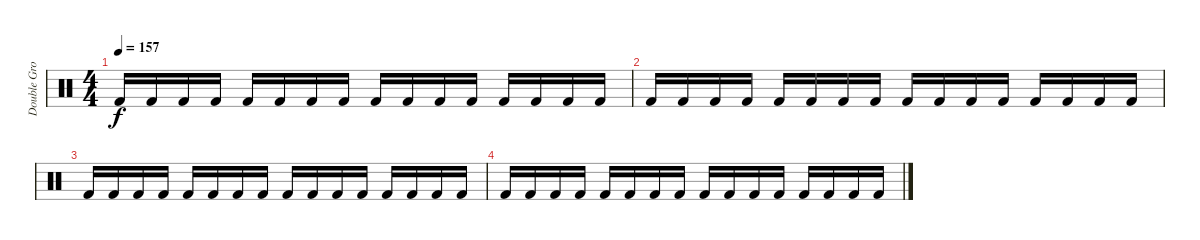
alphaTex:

\track ("Double Grosse Caisse" "Double Gro") {instrument percussion}
\staff {score}
\articulation defaults
\ts (4 4)
\tempo 157
\clef neutral
\ks c "Kick (hit) 2".16{dy f} "Kick (hit) 2".16 "Kick (hit) 2".16 "Kick (hit) 2".16 "Kick (hit) 2".16 "Kick (hit) 2".16 "Kick (hit) 2".16 "Kick (hit) 2".16 "Kick (hit) 2".16 "Kick (hit) 2".16 "Kick (hit) 2".16 "Kick (hit) 2".16 "Kick (hit) 2".16 "Kick (hit) 2".16 "Kick (hit) 2".16 "Kick (hit) 2".16
|
"Kick (hit) 2".16 "Kick (hit) 2".16 "Kick (hit) 2".16 "Kick (hit) 2".16 "Kick (hit) 2".16 "Kick (hit) 2".16 "Kick (hit) 2".16 "Kick (hit) 2".16 "Kick (hit) 2".16 "Kick (hit) 2".16 "Kick (hit) 2".16 "Kick (hit) 2".16 "Kick (hit) 2".16 "Kick (hit) 2".16 "Kick (hit) 2".16 "Kick (hit) 2".16 |
"Kick (hit) 2".16 "Kick (hit) 2".16 "Kick (hit) 2".16 "Kick (hit) 2".16 "Kick (hit) 2".16 "Kick (hit) 2".16 "Kick (hit) 2".16 "Kick (hit) 2".16 "Kick (hit) 2".16 "Kick (hit) 2".16 "Kick (hit) 2".16 "Kick (hit) 2".16 "Kick (hit) 2".16 "Kick (hit) 2".16 "Kick (hit) 2".16 "Kick (hit) 2".16 |
"Kick (hit) 2".16 "Kick (hit) 2".16 "Kick (hit) 2".16 "Kick (hit) 2".16 "Kick (hit) 2".16 "Kick (hit) 2".16 "Kick (hit) 2".16 "Kick (hit) 2".16 "Kick (hit) 2".16 "Kick (hit) 2".16 "Kick (hit) 2".16 "Kick (hit) 2".16 "Kick (hit) 2".16 "Kick (hit) 2".16 "Kick (hit) 2".16 "Kick (hit) 2".16
